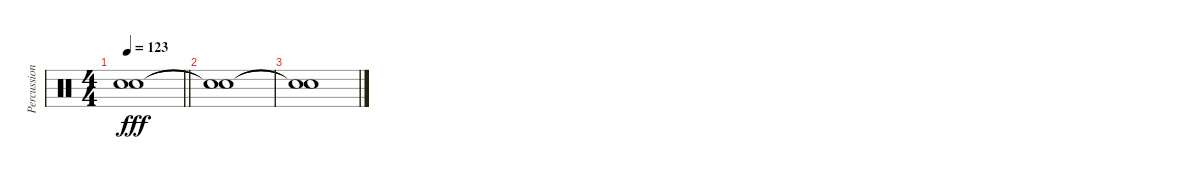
\track ("Percussion" "Percussion") {instrument percussion}
\staff {score}
\articulation defaults
\ts (4 4)
\tempo 123
\clef neutral
\barLineRight lightlight
\ks c
("Snare (hit)"{t} "Snare (hit)"{t}).1{dy fff} |
("Snare (hit)"{t} "Snare (hit)"{t}).1 |
("Snare (hit)"{t} "Snare (hit)"{t}).1
